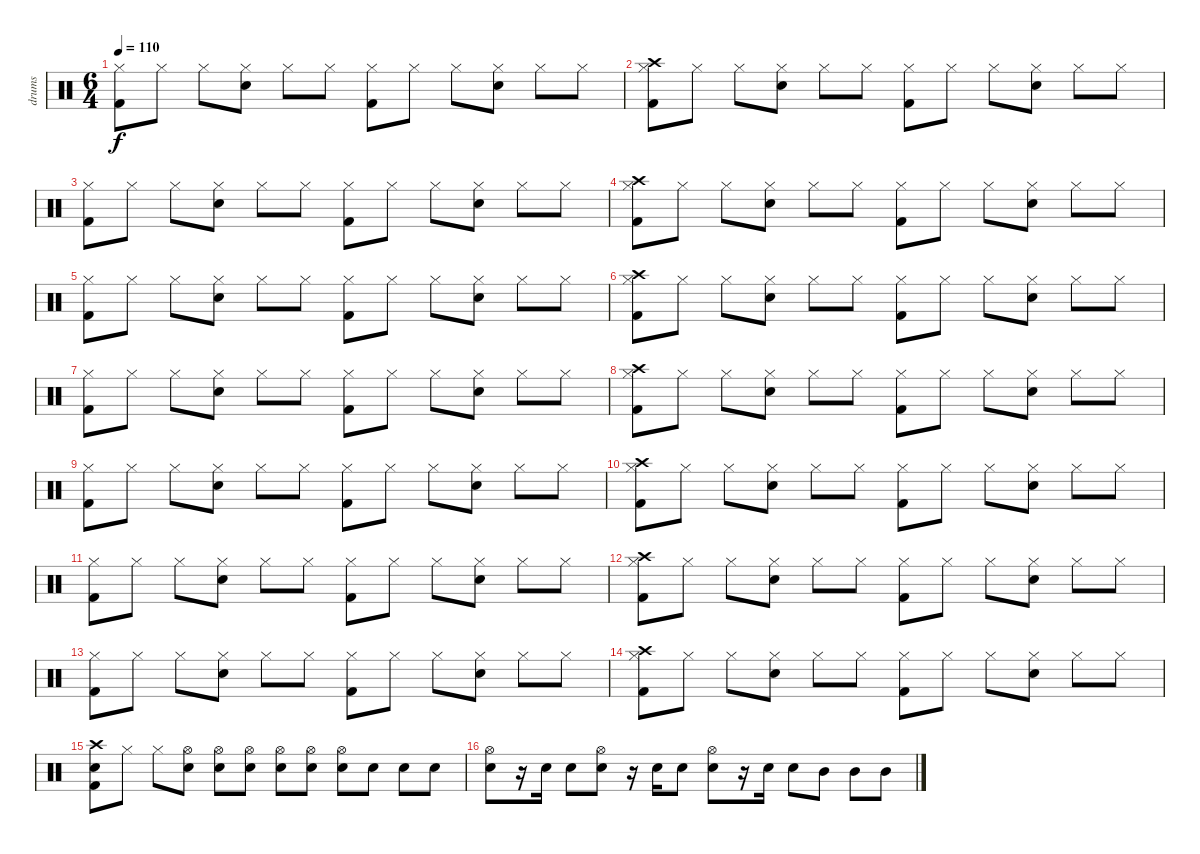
\track ("drums" "drums") {instrument percussion}
\staff {score}
\articulation defaults
\ts (6 4)
\tempo 110
\clef neutral
\ks c
("Hi-Hat (closed)" "Kick (hit) 2").8{dy f} "Hi-Hat (closed)".8 "Hi-Hat (closed)".8 ("Hi-Hat (closed)" "Snare (hit) 2").8 "Hi-Hat (closed)".8 "Hi-Hat (closed)".8 ("Hi-Hat (closed)" "Kick (hit) 2").8 "Hi-Hat (closed)".8 "Hi-Hat (closed)".8 ("Hi-Hat (closed)" "Snare (hit) 2").8 "Hi-Hat (closed)".8 "Hi-Hat (closed)".8 |
("Hi-Hat (closed)" "Kick (hit) 2" "Crash high (hit)").8 "Hi-Hat (closed)".8 "Hi-Hat (closed)".8 ("Hi-Hat (closed)" "Snare (hit) 2").8 "Hi-Hat (closed)".8 "Hi-Hat (closed)".8 ("Hi-Hat (closed)" "Kick (hit) 2").8 "Hi-Hat (closed)".8 "Hi-Hat (closed)".8 ("Hi-Hat (closed)" "Snare (hit) 2").8 "Hi-Hat (closed)".8 "Hi-Hat (closed)".8 |
("Hi-Hat (closed)" "Kick (hit) 2").8 "Hi-Hat (closed)".8 "Hi-Hat (closed)".8 ("Hi-Hat (closed)" "Snare (hit) 2").8 "Hi-Hat (closed)".8 "Hi-Hat (closed)".8 ("Hi-Hat (closed)" "Kick (hit) 2").8 "Hi-Hat (closed)".8 "Hi-Hat (closed)".8 ("Hi-Hat (closed)" "Snare (hit) 2").8 "Hi-Hat (closed)".8 "Hi-Hat (closed)".8 |
("Hi-Hat (closed)" "Kick (hit) 2" "Crash high (hit)").8 "Hi-Hat (closed)".8 "Hi-Hat (closed)".8 ("Hi-Hat (closed)" "Snare (hit) 2").8 "Hi-Hat (closed)".8 "Hi-Hat (closed)".8 ("Hi-Hat (closed)" "Kick (hit) 2").8 "Hi-Hat (closed)".8 "Hi-Hat (closed)".8 ("Hi-Hat (closed)" "Snare (hit) 2").8 "Hi-Hat (closed)".8 "Hi-Hat (closed)".8 |
("Hi-Hat (closed)" "Kick (hit) 2").8 "Hi-Hat (closed)".8 "Hi-Hat (closed)".8 ("Hi-Hat (closed)" "Snare (hit) 2").8 "Hi-Hat (closed)".8 "Hi-Hat (closed)".8 ("Hi-Hat (closed)" "Kick (hit) 2").8 "Hi-Hat (closed)".8 "Hi-Hat (closed)".8 ("Hi-Hat (closed)" "Snare (hit) 2").8 "Hi-Hat (closed)".8 "Hi-Hat (closed)".8 |
("Hi-Hat (closed)" "Kick (hit) 2" "Crash high (hit)").8 "Hi-Hat (closed)".8 "Hi-Hat (closed)".8 ("Hi-Hat (closed)" "Snare (hit) 2").8 "Hi-Hat (closed)".8 "Hi-Hat (closed)".8 ("Hi-Hat (closed)" "Kick (hit) 2").8 "Hi-Hat (closed)".8 "Hi-Hat (closed)".8 ("Hi-Hat (closed)" "Snare (hit) 2").8 "Hi-Hat (closed)".8 "Hi-Hat (closed)".8 |
("Hi-Hat (closed)" "Kick (hit) 2").8 "Hi-Hat (closed)".8 "Hi-Hat (closed)".8 ("Hi-Hat (closed)" "Snare (hit) 2").8 "Hi-Hat (closed)".8 "Hi-Hat (closed)".8 ("Hi-Hat (closed)" "Kick (hit) 2").8 "Hi-Hat (closed)".8 "Hi-Hat (closed)".8 ("Hi-Hat (closed)" "Snare (hit) 2").8 "Hi-Hat (closed)".8 "Hi-Hat (closed)".8 |
("Hi-Hat (closed)" "Kick (hit) 2" "Crash high (hit)").8 "Hi-Hat (closed)".8 "Hi-Hat (closed)".8 ("Hi-Hat (closed)" "Snare (hit) 2").8 "Hi-Hat (closed)".8 "Hi-Hat (closed)".8 ("Hi-Hat (closed)" "Kick (hit) 2").8 "Hi-Hat (closed)".8 "Hi-Hat (closed)".8 ("Hi-Hat (closed)" "Snare (hit) 2").8 "Hi-Hat (closed)".8 "Hi-Hat (closed)".8 |
("Hi-Hat (closed)" "Kick (hit) 2").8 "Hi-Hat (closed)".8 "Hi-Hat (closed)".8 ("Hi-Hat (closed)" "Snare (hit) 2").8 "Hi-Hat (closed)".8 "Hi-Hat (closed)".8 ("Hi-Hat (closed)" "Kick (hit) 2").8 "Hi-Hat (closed)".8 "Hi-Hat (closed)".8 ("Hi-Hat (closed)" "Snare (hit) 2").8 "Hi-Hat (closed)".8 "Hi-Hat (closed)".8 |
("Hi-Hat (closed)" "Kick (hit) 2" "Crash high (hit)").8 "Hi-Hat (closed)".8 "Hi-Hat (closed)".8 ("Hi-Hat (closed)" "Snare (hit) 2").8 "Hi-Hat (closed)".8 "Hi-Hat (closed)".8 ("Hi-Hat (closed)" "Kick (hit) 2").8 "Hi-Hat (closed)".8 "Hi-Hat (closed)".8 ("Hi-Hat (closed)" "Snare (hit) 2").8 "Hi-Hat (closed)".8 "Hi-Hat (closed)".8 |
("Hi-Hat (closed)" "Kick (hit) 2").8 "Hi-Hat (closed)".8 "Hi-Hat (closed)".8 ("Hi-Hat (closed)" "Snare (hit) 2").8 "Hi-Hat (closed)".8 "Hi-Hat (closed)".8 ("Hi-Hat (closed)" "Kick (hit) 2").8 "Hi-Hat (closed)".8 "Hi-Hat (closed)".8 ("Hi-Hat (closed)" "Snare (hit) 2").8 "Hi-Hat (closed)".8 "Hi-Hat (closed)".8 |
("Hi-Hat (closed)" "Kick (hit) 2" "Crash high (hit)").8 "Hi-Hat (closed)".8 "Hi-Hat (closed)".8 ("Hi-Hat (closed)" "Snare (hit) 2").8 "Hi-Hat (closed)".8 "Hi-Hat (closed)".8 ("Hi-Hat (closed)" "Kick (hit) 2").8 "Hi-Hat (closed)".8 "Hi-Hat (closed)".8 ("Hi-Hat (closed)" "Snare (hit) 2").8 "Hi-Hat (closed)".8 "Hi-Hat (closed)".8 |
("Hi-Hat (closed)" "Kick (hit) 2").8 "Hi-Hat (closed)".8 "Hi-Hat (closed)".8 ("Hi-Hat (closed)" "Snare (hit) 2").8 "Hi-Hat (closed)".8 "Hi-Hat (closed)".8 ("Hi-Hat (closed)" "Kick (hit) 2").8 "Hi-Hat (closed)".8 "Hi-Hat (closed)".8 ("Hi-Hat (closed)" "Snare (hit) 2").8 "Hi-Hat (closed)".8 "Hi-Hat (closed)".8 |
("Hi-Hat (closed)" "Kick (hit) 2" "Crash high (hit)").8 "Hi-Hat (closed)".8 "Hi-Hat (closed)".8 ("Hi-Hat (closed)" "Snare (hit) 2").8 "Hi-Hat (closed)".8 "Hi-Hat (closed)".8 ("Hi-Hat (closed)" "Kick (hit) 2").8 "Hi-Hat (closed)".8 "Hi-Hat (closed)".8 ("Hi-Hat (closed)" "Snare (hit) 2").8 "Hi-Hat (closed)".8 "Hi-Hat (closed)".8 |
("Electric Snare (hit)" "Kick (hit) 2" "Crash high (hit)").8 "Hi-Hat (closed)".8 "Hi-Hat (closed)".8 ("Hi-Hat (open)" "Snare (hit) 2").8 ("Hi-Hat (open)" "Snare (hit) 2").8 ("Hi-Hat (open)" "Snare (hit) 2").8 ("Hi-Hat (open)" "Snare (hit) 2").8 ("Hi-Hat (open)" "Snare (hit) 2").8 ("Hi-Hat (open)" "Snare (hit) 2").8 "Snare (hit) 2".8 "Snare (hit) 2".8 "Snare (hit) 2".8 |
("Hi-Hat (open)" "Snare (hit) 2").8 r.16 "Snare (hit) 2".16 "Snare (hit) 2".8 ("Hi-Hat (open)" "Snare (hit) 2").8 r.16 "Snare (hit) 2".16 "Snare (hit) 2".8 ("Hi-Hat (open)" "Snare (hit) 2").8 r.16 "Snare (hit) 2".16 "Snare (hit) 2".8 "Mid Tom (hit)".8 "Mid Tom (hit)".8 "Mid Tom (hit)".8
